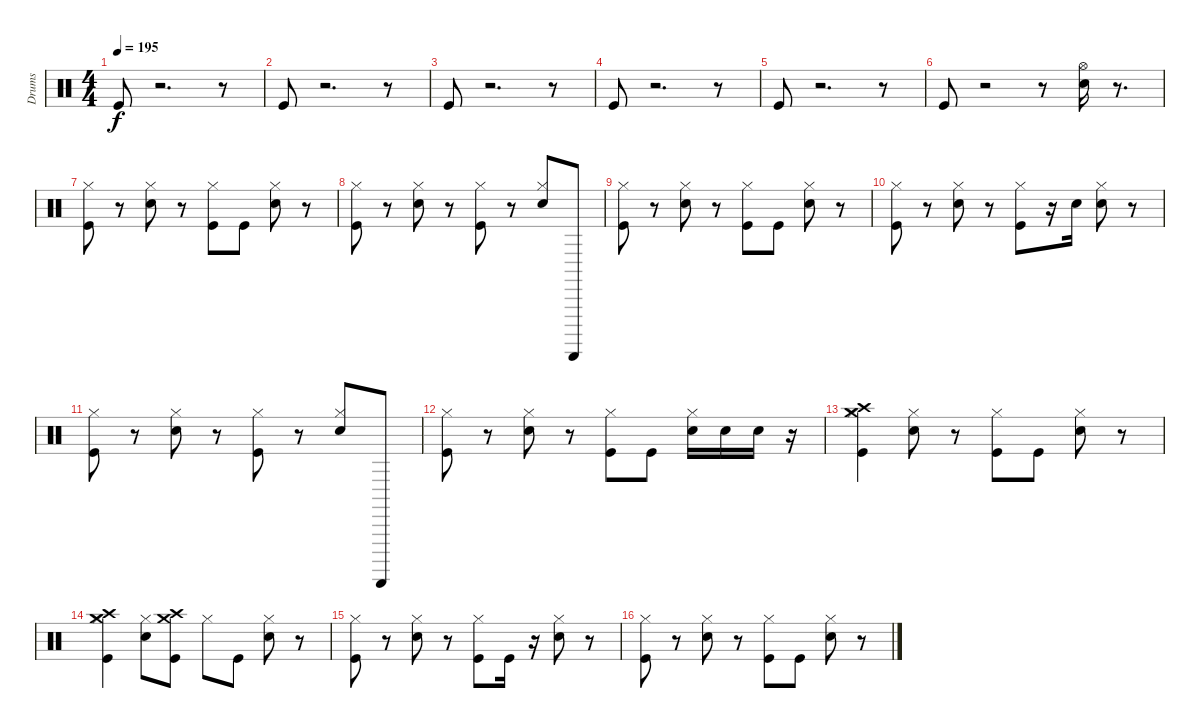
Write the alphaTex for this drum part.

\track ("Drums" "Drums") {instrument percussion}
\staff {score}
\articulation defaults
\ts (4 4)
\tempo 195
\clef neutral
\ks c "Kick (hit)".8{dy f}
r.2{d} r.8 |
"Kick (hit)".8 r.2{d} r.8 |
"Kick (hit)".8 r.2{d} r.8 |
"Kick (hit)".8 r.2{d} r.8 |
"Kick (hit)".8 r.2{d} r.8 |
"Kick (hit)".8 r.2 r.8 ("Hi-Hat (open)" "Electric Snare (hit)").16 r.8{d} |
("Hi-Hat (closed)" "Kick (hit)").8 r.8 ("Electric Snare (hit)" "Hi-Hat (closed)").8 r.8 ("Hi-Hat (closed)" "Kick (hit)").8 "Kick (hit)".8 ("Hi-Hat (closed)" "Electric Snare (hit)").8 r.8 |
("Hi-Hat (closed)" "Kick (hit)").8 r.8 ("Electric Snare (hit)" "Hi-Hat (closed)").8 r.8 ("Hi-Hat (closed)" "Kick (hit)").8 r.8 ("Electric Snare (hit)" "Hi-Hat (closed)").8 "Guiro (scrap-return)".8 |
("Kick (hit)" "Hi-Hat (closed)").8 r.8 ("Electric Snare (hit)" "Hi-Hat (closed)").8 r.8 ("Hi-Hat (closed)" "Kick (hit)").8 "Kick (hit)".8 ("Electric Snare (hit)" "Hi-Hat (closed)").8 r.8 |
("Hi-Hat (closed)" "Kick (hit)").8 r.8 ("Electric Snare (hit)" "Hi-Hat (closed)").8 r.8 ("Kick (hit)" "Hi-Hat (closed)").8 r.16 "Electric Snare (hit)".16 ("Hi-Hat (closed)" "Electric Snare (hit)").8 r.8 |
("Kick (hit)" "Hi-Hat (closed)").8 r.8 ("Electric Snare (hit)" "Hi-Hat (closed)").8 r.8 ("Hi-Hat (closed)" "Kick (hit)").8 r.8 ("Electric Snare (hit)" "Hi-Hat (closed)").8 "Guiro (scrap-return)".8 |
("Hi-Hat (closed)" "Kick (hit)").8 r.8 ("Electric Snare (hit)" "Hi-Hat (closed)").8 r.8 ("Kick (hit)" "Hi-Hat (closed)").8 "Kick (hit)".8 ("Electric Snare (hit)" "Hi-Hat (closed)").16 "Electric Snare (hit)".16 "Electric Snare (hit)".16 r.16 |
("Crash medium (hit)" "Hi-Hat (closed)" "Kick (hit)" "Crash high (hit)").4 ("Electric Snare (hit)" "Hi-Hat (closed)").8 r.8 ("Kick (hit)" "Hi-Hat (closed)").8 "Kick (hit)".8 ("Hi-Hat (closed)" "Electric Snare (hit)").8 r.8 |
("Hi-Hat (closed)" "Kick (hit)" "Crash medium (hit)" "Crash high (hit)").4 ("Electric Snare (hit)" "Hi-Hat (closed)").8 ("Kick (hit)" "Crash high (hit)" "Crash medium (hit)").8 "Hi-Hat (closed)".8 "Kick (hit)".8 ("Hi-Hat (closed)" "Electric Snare (hit)").8 r.8 |
("Hi-Hat (closed)" "Kick (hit)").8 r.8 ("Hi-Hat (closed)" "Electric Snare (hit)").8 r.8 ("Kick (hit)" "Hi-Hat (closed)").8 "Kick (hit)".16 r.16 ("Hi-Hat (closed)" "Electric Snare (hit)").8 r.8 |
("Hi-Hat (closed)" "Kick (hit)").8 r.8 ("Hi-Hat (closed)" "Electric Snare (hit)").8 r.8 ("Hi-Hat (closed)" "Kick (hit)").8 "Kick (hit)".8 ("Hi-Hat (closed)" "Electric Snare (hit)").8 r.8
